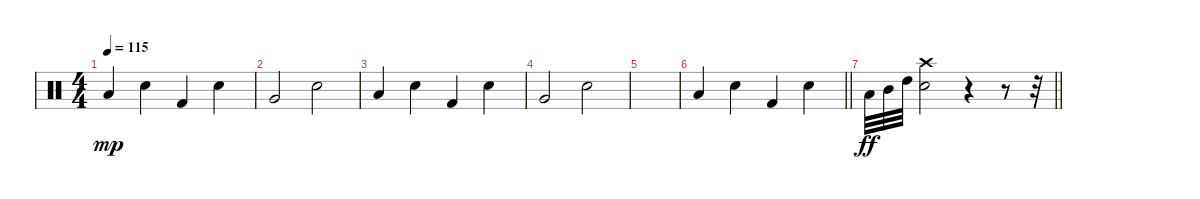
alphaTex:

\track "" {instrument percussion}
\staff {score}
\articulation defaults
\ts (4 4)
\tempo 115
\clef neutral
\ks c "Low Floor Tom (hit)".4{dy mp} "Snare (hit) 2".4 "Kick (hit) 2".4 "Snare (hit) 2".4
|
"Very Low Tom (hit)".2 "Electric Snare (hit)".2 |
"Low Floor Tom (hit)".4 "Snare (hit) 2".4 "Kick (hit) 2".4 "Snare (hit) 2".4 |
"Very Low Tom (hit)".2 "Electric Snare (hit)".2 |
|
\barLineRight lightlight "Low Floor Tom (hit)".4 "Snare (hit) 2".4 "Kick (hit) 2".4 "Snare (hit) 2".4
|
\barLineRight lightlight "Low Tom (hit)".32{dy ff} "Mid Tom (hit)".32 "High Tom (hit)".32
("Crash high (hit)" "Snare (hit) 2").2 r.4 r.8 r.32
